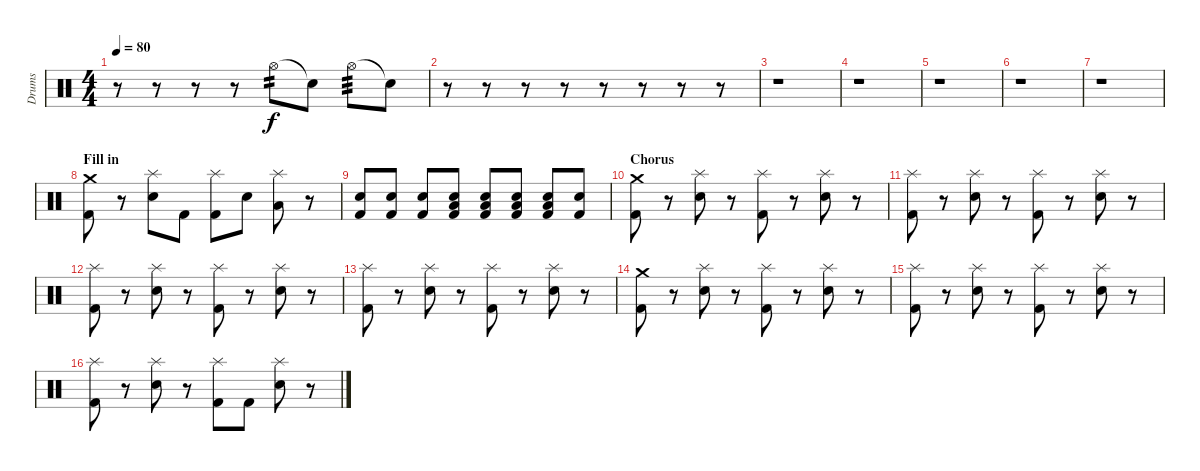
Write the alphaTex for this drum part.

\track ("Drums" "Drums") {instrument percussion}
\staff {score}
\articulation defaults
\ts (4 4)
\tempo 80
\clef neutral
\ks c
r.8{dy f} r.8 r.8 r.8 "Hi-Hat (open)".8{tp 2 volume 10} "Snare (hit)"{t}.8 "Hi-Hat (open)".8{tp 3} "Snare (hit)"{t}.8 |
r.8 r.8 r.8 r.8 r.8{volume 13} r.8 r.8 r.8 |
r.1 |
r.1 |
r.1 |
r.1 |
r.1 |
\section ("" "Fill in")
("Crash medium (hit)" "Kick (hit) 2").8 r.8 ("Splash (hit)" "Electric Snare (hit)").8 "Kick (hit) 2".8 ("Splash (hit)" "Kick (hit) 2").8 "Electric Snare (hit)".8 ("Splash (hit)" "Low Floor Tom (hit)").8 r.8 |
("Electric Snare (hit)" "Kick (hit) 2").8 ("Electric Snare (hit)" "Kick (hit) 2").8 ("Electric Snare (hit)" "Kick (hit) 2").8 ("Low Floor Tom (hit)" "Electric Snare (hit)" "Kick (hit) 2").8 ("Low Floor Tom (hit)" "Electric Snare (hit)" "Kick (hit) 2").8 ("Low Floor Tom (hit)" "Electric Snare (hit)" "Kick (hit) 2").8 ("Low Floor Tom (hit)" "Electric Snare (hit)" "Kick (hit) 2").8 ("Electric Snare (hit)" "Kick (hit) 2").8 |
\section ("" "Chorus")
("Crash medium (hit)" "Kick (hit) 2").8 r.8 ("Splash (hit)" "Electric Snare (hit)").8 r.8 ("Splash (hit)" "Kick (hit) 2").8 r.8 ("Splash (hit)" "Electric Snare (hit)").8 r.8 |
("Splash (hit)" "Kick (hit) 2").8 r.8 ("Splash (hit)" "Electric Snare (hit)").8 r.8 ("Splash (hit)" "Kick (hit) 2").8 r.8 ("Splash (hit)" "Electric Snare (hit)").8 r.8 |
("Splash (hit)" "Kick (hit) 2").8 r.8 ("Splash (hit)" "Electric Snare (hit)").8 r.8 ("Splash (hit)" "Kick (hit) 2").8 r.8 ("Splash (hit)" "Electric Snare (hit)").8 r.8 |
("Splash (hit)" "Kick (hit) 2").8 r.8 ("Splash (hit)" "Electric Snare (hit)").8 r.8 ("Splash (hit)" "Kick (hit) 2").8 r.8 ("Splash (hit)" "Electric Snare (hit)").8 r.8 |
("Crash medium (hit)" "Kick (hit) 2").8 r.8 ("Splash (hit)" "Electric Snare (hit)").8 r.8 ("Splash (hit)" "Kick (hit) 2").8 r.8 ("Splash (hit)" "Electric Snare (hit)").8 r.8 |
("Splash (hit)" "Kick (hit) 2").8 r.8 ("Splash (hit)" "Electric Snare (hit)").8 r.8 ("Splash (hit)" "Kick (hit) 2").8 r.8 ("Splash (hit)" "Electric Snare (hit)").8 r.8 |
("Splash (hit)" "Kick (hit) 2").8 r.8 ("Splash (hit)" "Electric Snare (hit)").8 r.8 ("Splash (hit)" "Kick (hit) 2").8 "Kick (hit) 2".8 ("Splash (hit)" "Electric Snare (hit)").8 r.8
